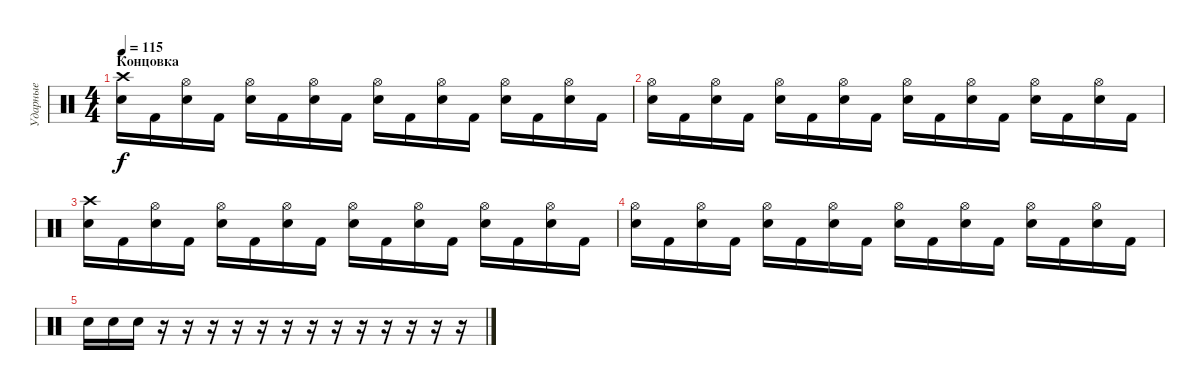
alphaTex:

\track ("Ударные" "Ударные") {instrument percussion}
\staff {score}
\articulation defaults
\ts (4 4)
\section ("" "Концовка")
\tempo 115
\clef neutral
\ks c
("Crash high (hit)" "Snare (hit) 2").16{dy f} "Kick (hit) 2".16 ("Hi-Hat (open)" "Snare (hit) 2").16 "Kick (hit) 2".16 ("Hi-Hat (open)" "Snare (hit) 2").16 "Kick (hit) 2".16 ("Hi-Hat (open)" "Snare (hit) 2").16 "Kick (hit) 2".16 ("Hi-Hat (open)" "Snare (hit) 2").16 "Kick (hit) 2".16 ("Hi-Hat (open)" "Snare (hit) 2").16 "Kick (hit) 2".16 ("Hi-Hat (open)" "Snare (hit) 2").16 "Kick (hit) 2".16 ("Hi-Hat (open)" "Snare (hit) 2").16 "Kick (hit) 2".16 |
("Hi-Hat (open)" "Snare (hit) 2").16 "Kick (hit) 2".16 ("Hi-Hat (open)" "Snare (hit) 2").16 "Kick (hit) 2".16 ("Hi-Hat (open)" "Snare (hit) 2").16 "Kick (hit) 2".16 ("Hi-Hat (open)" "Snare (hit) 2").16 "Kick (hit) 2".16 ("Hi-Hat (open)" "Snare (hit) 2").16 "Kick (hit) 2".16 ("Hi-Hat (open)" "Snare (hit) 2").16 "Kick (hit) 2".16 ("Hi-Hat (open)" "Snare (hit) 2").16 "Kick (hit) 2".16 ("Hi-Hat (open)" "Snare (hit) 2").16 "Kick (hit) 2".16 |
("Crash high (hit)" "Snare (hit) 2").16 "Kick (hit) 2".16 ("Hi-Hat (open)" "Snare (hit) 2").16 "Kick (hit) 2".16 ("Hi-Hat (open)" "Snare (hit) 2").16 "Kick (hit) 2".16 ("Hi-Hat (open)" "Snare (hit) 2").16 "Kick (hit) 2".16 ("Hi-Hat (open)" "Snare (hit) 2").16 "Kick (hit) 2".16 ("Hi-Hat (open)" "Snare (hit) 2").16 "Kick (hit) 2".16 ("Hi-Hat (open)" "Snare (hit) 2").16 "Kick (hit) 2".16 ("Hi-Hat (open)" "Snare (hit) 2").16 "Kick (hit) 2".16 |
("Hi-Hat (open)" "Snare (hit) 2").16 "Kick (hit) 2".16 ("Hi-Hat (open)" "Snare (hit) 2").16 "Kick (hit) 2".16 ("Hi-Hat (open)" "Snare (hit) 2").16 "Kick (hit) 2".16 ("Hi-Hat (open)" "Snare (hit) 2").16 "Kick (hit) 2".16 ("Hi-Hat (open)" "Snare (hit) 2").16 "Kick (hit) 2".16 ("Hi-Hat (open)" "Snare (hit) 2").16 "Kick (hit) 2".16 ("Hi-Hat (open)" "Snare (hit) 2").16 "Kick (hit) 2".16 ("Hi-Hat (open)" "Snare (hit) 2").16 "Kick (hit) 2".16 |
"Snare (hit) 2".16 "Snare (hit) 2".16 "Snare (hit) 2".16 r.16 r.16 r.16 r.16 r.16 r.16 r.16 r.16 r.16 r.16 r.16 r.16 r.16
